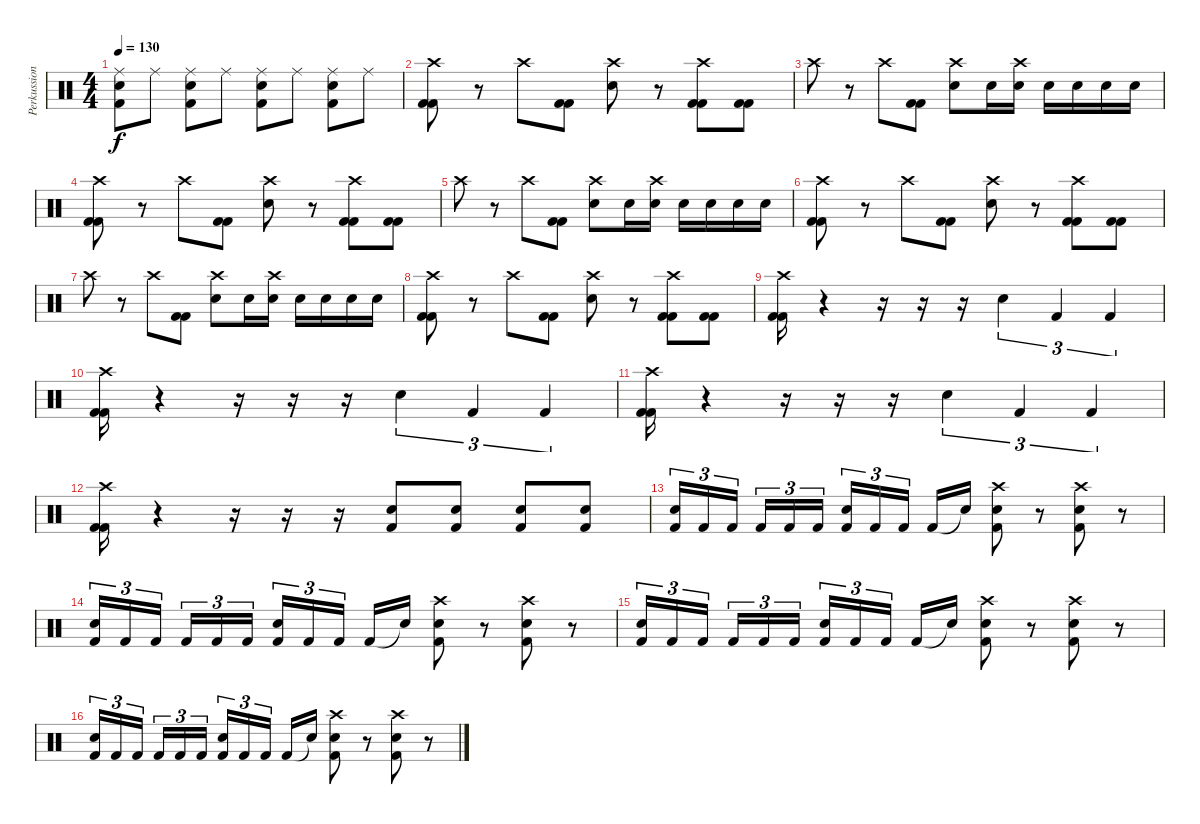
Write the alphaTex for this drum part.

\track ("Perkussion" "Perkussion") {instrument percussion}
\staff {score}
\articulation defaults
\ts (4 4)
\tempo 130
\clef neutral
\ks c
("Ride (middle)" "Electric Snare (hit)" "Kick (hit) 2").8{dy f} "Ride (middle)".8 ("Ride (middle)" "Electric Snare (hit)" "Kick (hit) 2").8 "Ride (middle)".8 ("Ride (middle)" "Electric Snare (hit)" "Kick (hit) 2").8 "Ride (middle)".8 ("Ride (middle)" "Electric Snare (hit)" "Kick (hit) 2").8 "Ride (middle)".8 |
("Crash high (hit)" "Kick (hit) 2" "Kick (hit) 2").8 r.8 "Crash high (hit)".8 ("Kick (hit) 2" "Kick (hit) 2").8 ("Crash high (hit)" "Electric Snare (hit)").8 r.8 ("Crash high (hit)" "Kick (hit) 2" "Kick (hit) 2").8 ("Kick (hit) 2" "Kick (hit) 2").8 |
"Crash high (hit)".8 r.8 "Crash high (hit)".8 ("Kick (hit) 2" "Kick (hit) 2").8 ("Crash high (hit)" "Electric Snare (hit)").8 "Electric Snare (hit)".16 ("Crash high (hit)" "Electric Snare (hit)").16 "Electric Snare (hit)".16 "Electric Snare (hit)".16 "Electric Snare (hit)".16 "Electric Snare (hit)".16 |
("Crash high (hit)" "Kick (hit) 2" "Kick (hit) 2").8 r.8 "Crash high (hit)".8 ("Kick (hit) 2" "Kick (hit) 2").8 ("Crash high (hit)" "Electric Snare (hit)").8 r.8 ("Crash high (hit)" "Kick (hit) 2" "Kick (hit) 2").8 ("Kick (hit) 2" "Kick (hit) 2").8 |
"Crash high (hit)".8 r.8 "Crash high (hit)".8 ("Kick (hit) 2" "Kick (hit) 2").8 ("Crash high (hit)" "Electric Snare (hit)").8 "Electric Snare (hit)".16 ("Crash high (hit)" "Electric Snare (hit)").16 "Electric Snare (hit)".16 "Electric Snare (hit)".16 "Electric Snare (hit)".16 "Electric Snare (hit)".16 |
("Crash high (hit)" "Kick (hit) 2" "Kick (hit) 2").8 r.8 "Crash high (hit)".8 ("Kick (hit) 2" "Kick (hit) 2").8 ("Crash high (hit)" "Electric Snare (hit)").8 r.8 ("Crash high (hit)" "Kick (hit) 2" "Kick (hit) 2").8 ("Kick (hit) 2" "Kick (hit) 2").8 |
"Crash high (hit)".8 r.8 "Crash high (hit)".8 ("Kick (hit) 2" "Kick (hit) 2").8 ("Crash high (hit)" "Electric Snare (hit)").8 "Electric Snare (hit)".16 ("Crash high (hit)" "Electric Snare (hit)").16 "Electric Snare (hit)".16 "Electric Snare (hit)".16 "Electric Snare (hit)".16 "Electric Snare (hit)".16 |
("Crash high (hit)" "Kick (hit) 2" "Kick (hit) 2").8 r.8 "Crash high (hit)".8 ("Kick (hit) 2" "Kick (hit) 2").8 ("Crash high (hit)" "Electric Snare (hit)").8 r.8 ("Crash high (hit)" "Kick (hit) 2" "Kick (hit) 2").8 ("Kick (hit) 2" "Kick (hit) 2").8 |
("Crash high (hit)" "Kick (hit) 2" "Kick (hit) 2").16 r.4 r.16 r.16 r.16 "Electric Snare (hit)".4{tu (3 2)} "Kick (hit) 2".4{tu (3 2)} "Kick (hit) 2".4{tu (3 2)} |
("Crash high (hit)" "Kick (hit) 2" "Kick (hit) 2").16 r.4 r.16 r.16 r.16 "Electric Snare (hit)".4{tu (3 2)} "Kick (hit) 2".4{tu (3 2)} "Kick (hit) 2".4{tu (3 2)} |
("Crash high (hit)" "Kick (hit) 2" "Kick (hit) 2").16 r.4 r.16 r.16 r.16 "Electric Snare (hit)".4{tu (3 2)} "Kick (hit) 2".4{tu (3 2)} "Kick (hit) 2".4{tu (3 2)} |
("Crash high (hit)" "Kick (hit) 2" "Kick (hit) 2").16 r.4 r.16 r.16 r.16 ("Electric Snare (hit)" "Kick (hit) 2").8 ("Electric Snare (hit)" "Kick (hit) 2").8 ("Electric Snare (hit)" "Kick (hit) 2").8 ("Electric Snare (hit)" "Kick (hit) 2").8 |
("Electric Snare (hit)" "Kick (hit) 2").16{tu (3 2)} "Kick (hit) 2".16{tu (3 2)} "Kick (hit) 2".16{tu (3 2)} "Kick (hit) 2".16{tu (3 2)} "Kick (hit) 2".16{tu (3 2)} "Kick (hit) 2".16{tu (3 2)} ("Electric Snare (hit)" "Kick (hit) 2").16{tu (3 2)} "Kick (hit) 2".16{tu (3 2)} "Kick (hit) 2".16{tu (3 2)} "Kick (hit) 2".16 "Snare (hit)"{t}.16 ("Crash high (hit)" "Electric Snare (hit)" "Kick (hit) 2").8 r.8 ("Crash high (hit)" "Electric Snare (hit)" "Kick (hit) 2").8 r.8 |
("Electric Snare (hit)" "Kick (hit) 2").16{tu (3 2)} "Kick (hit) 2".16{tu (3 2)} "Kick (hit) 2".16{tu (3 2)} "Kick (hit) 2".16{tu (3 2)} "Kick (hit) 2".16{tu (3 2)} "Kick (hit) 2".16{tu (3 2)} ("Electric Snare (hit)" "Kick (hit) 2").16{tu (3 2)} "Kick (hit) 2".16{tu (3 2)} "Kick (hit) 2".16{tu (3 2)} "Kick (hit) 2".16 "Snare (hit)"{t}.16 ("Crash high (hit)" "Electric Snare (hit)" "Kick (hit) 2").8 r.8 ("Crash high (hit)" "Electric Snare (hit)" "Kick (hit) 2").8 r.8 |
("Electric Snare (hit)" "Kick (hit) 2").16{tu (3 2)} "Kick (hit) 2".16{tu (3 2)} "Kick (hit) 2".16{tu (3 2)} "Kick (hit) 2".16{tu (3 2)} "Kick (hit) 2".16{tu (3 2)} "Kick (hit) 2".16{tu (3 2)} ("Electric Snare (hit)" "Kick (hit) 2").16{tu (3 2)} "Kick (hit) 2".16{tu (3 2)} "Kick (hit) 2".16{tu (3 2)} "Kick (hit) 2".16 "Snare (hit)"{t}.16 ("Crash high (hit)" "Electric Snare (hit)" "Kick (hit) 2").8 r.8 ("Crash high (hit)" "Electric Snare (hit)" "Kick (hit) 2").8 r.8 |
("Electric Snare (hit)" "Kick (hit) 2").16{tu (3 2)} "Kick (hit) 2".16{tu (3 2)} "Kick (hit) 2".16{tu (3 2)} "Kick (hit) 2".16{tu (3 2)} "Kick (hit) 2".16{tu (3 2)} "Kick (hit) 2".16{tu (3 2)} ("Electric Snare (hit)" "Kick (hit) 2").16{tu (3 2)} "Kick (hit) 2".16{tu (3 2)} "Kick (hit) 2".16{tu (3 2)} "Kick (hit) 2".16 "Snare (hit)"{t}.16 ("Crash high (hit)" "Electric Snare (hit)" "Kick (hit) 2").8 r.8 ("Crash high (hit)" "Electric Snare (hit)" "Kick (hit) 2").8 r.8
